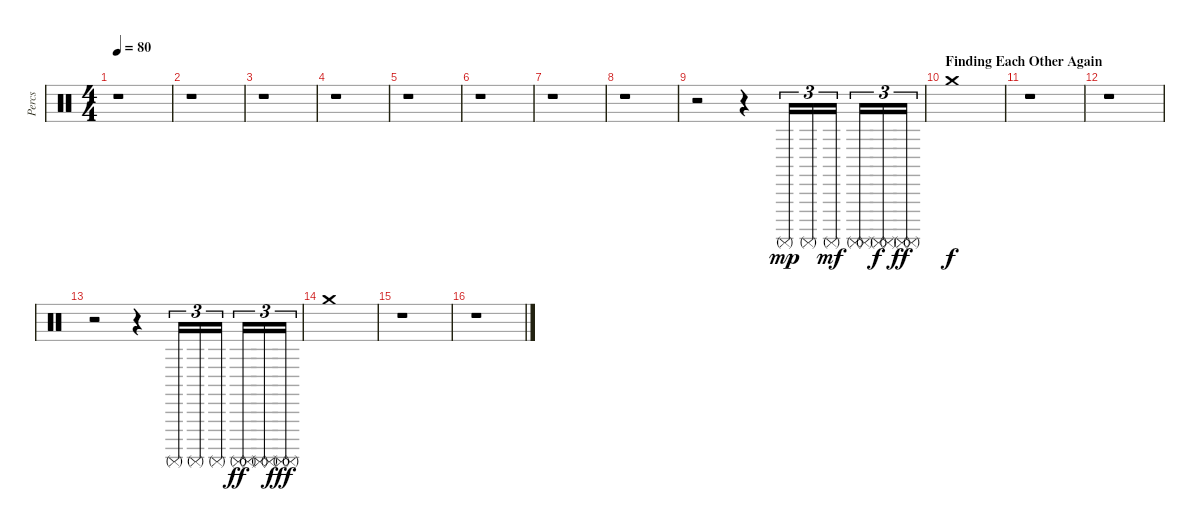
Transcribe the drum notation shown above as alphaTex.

\track ("Percs" "Percs") {instrument percussion}
\staff {score}
\articulation defaults
\ts (4 4)
\tempo 80
\clef neutral
\ks c
r.1{dy f} |
r.1 |
r.1 |
r.1 |
r.1 |
r.1 |
r.1 |
r.1 |
r.2 r.4 "Surdo (mute)".16{tu (3 2) dy mp} "Surdo (mute)".16{tu (3 2)} "Surdo (mute)".16{tu (3 2) dy mf} ("Surdo (mute)" "Surdo (mute)").16{tu (3 2)} ("Surdo (mute)" "Surdo (mute)").16{tu (3 2) dy f} ("Surdo (mute)" "Surdo (mute)").16{tu (3 2) dy ff} |
\section ("" "Finding Each Other Again")
"Crash medium (hit)".1{dy f} |
r.1 |
r.1 |
r.2 r.4 "Surdo (mute)".16{tu (3 2)} "Surdo (mute)".16{tu (3 2)} "Surdo (mute)".16{tu (3 2)} ("Surdo (mute)" "Surdo (mute)").16{tu (3 2) dy ff} ("Surdo (mute)" "Surdo (mute)").16{tu (3 2)} ("Surdo (mute)" "Surdo (mute)").16{tu (3 2) dy fff} |
"Crash medium (hit)".1 |
r.1 |
r.1
